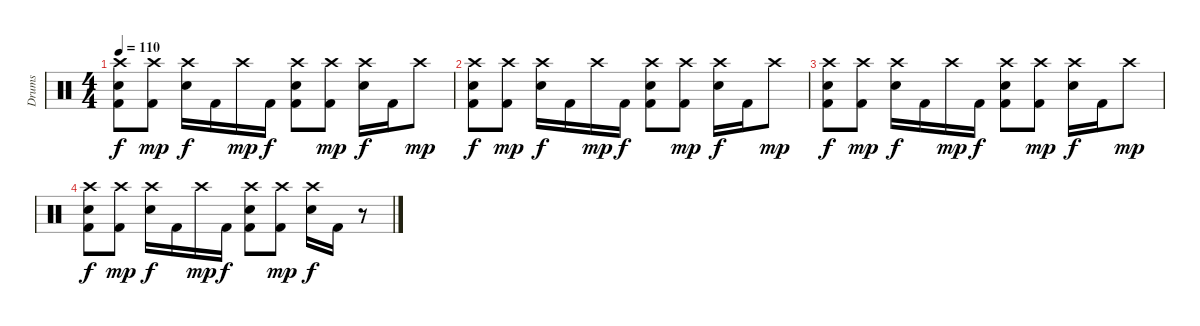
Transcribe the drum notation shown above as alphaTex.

\track ("Drums" "Drums") {instrument percussion}
\staff {score}
\articulation defaults
\ts (4 4)
\tempo 110
\clef neutral
\ks c
("Crash high (hit)" "Snare (hit) 2" "Kick (hit) 2").8{dy f} ("Crash high (hit)" "Kick (hit) 2").8{dy mp} ("Crash high (hit)" "Snare (hit) 2").16{dy f} "Kick (hit) 2".16 "Crash high (hit)".16{dy mp} "Kick (hit) 2".16{dy f} ("Crash high (hit)" "Snare (hit) 2" "Kick (hit) 2").8 ("Crash high (hit)" "Kick (hit) 2").8{dy mp} ("Crash high (hit)" "Snare (hit) 2").16{dy f} "Kick (hit) 2".16 "Crash high (hit)".8{dy mp} |
("Crash high (hit)" "Snare (hit) 2" "Kick (hit) 2").8{dy f} ("Crash high (hit)" "Kick (hit) 2").8{dy mp} ("Crash high (hit)" "Snare (hit) 2").16{dy f} "Kick (hit) 2".16 "Crash high (hit)".16{dy mp} "Kick (hit) 2".16{dy f} ("Crash high (hit)" "Snare (hit) 2" "Kick (hit) 2").8 ("Crash high (hit)" "Kick (hit) 2").8{dy mp} ("Crash high (hit)" "Snare (hit) 2").16{dy f} "Kick (hit) 2".16 "Crash high (hit)".8{dy mp} |
("Crash high (hit)" "Snare (hit) 2" "Kick (hit) 2").8{dy f} ("Crash high (hit)" "Kick (hit) 2").8{dy mp} ("Crash high (hit)" "Snare (hit) 2").16{dy f} "Kick (hit) 2".16 "Crash high (hit)".16{dy mp} "Kick (hit) 2".16{dy f} ("Crash high (hit)" "Snare (hit) 2" "Kick (hit) 2").8 ("Crash high (hit)" "Kick (hit) 2").8{dy mp} ("Crash high (hit)" "Snare (hit) 2").16{dy f} "Kick (hit) 2".16 "Crash high (hit)".8{dy mp} |
("Crash high (hit)" "Snare (hit) 2" "Kick (hit) 2").8{dy f} ("Crash high (hit)" "Kick (hit) 2").8{dy mp} ("Crash high (hit)" "Snare (hit) 2").16{dy f} "Kick (hit) 2".16 "Crash high (hit)".16{dy mp} "Kick (hit) 2".16{dy f} ("Crash high (hit)" "Snare (hit) 2" "Kick (hit) 2").8 ("Crash high (hit)" "Kick (hit) 2").8{dy mp} ("Crash high (hit)" "Snare (hit) 2").16{dy f} "Kick (hit) 2".16 r.8
